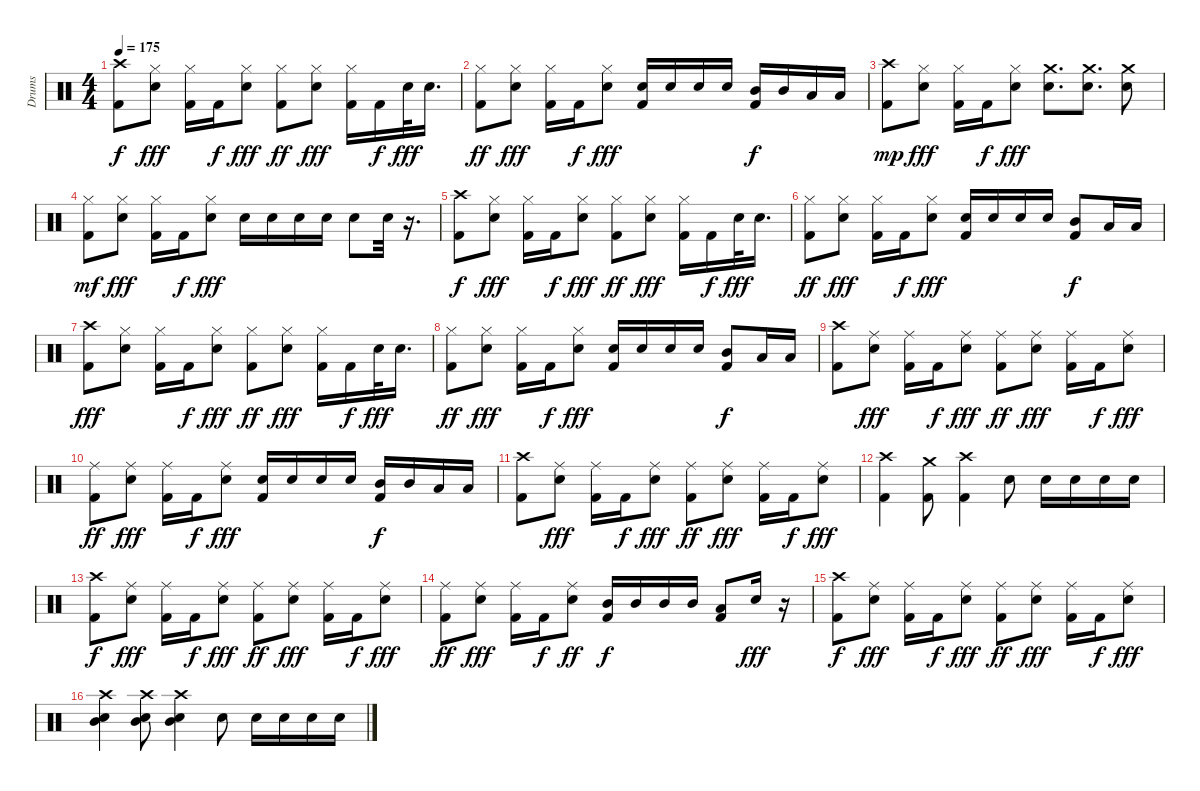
\track ("Drums" "Drums") {instrument percussion}
\staff {score}
\articulation defaults
\ts (4 4)
\tempo 175
\clef neutral
\ks c
("Crash high (hit)" "Kick (hit) 2").8{dy f} ("Hi-Hat (closed)" "Snare (hit) 2").8{dy fff} ("Hi-Hat (closed)" "Kick (hit) 2").16 "Kick (hit) 2".16{dy f} ("Hi-Hat (closed)" "Snare (hit) 2").8{dy fff} ("Hi-Hat (closed)" "Kick (hit) 2").8{dy ff} ("Hi-Hat (closed)" "Snare (hit) 2").8{dy fff} ("Hi-Hat (closed)" "Kick (hit) 2").16 "Kick (hit) 2".16{dy f} "Snare (hit) 2".32{dy fff} "Snare (hit) 2".16{d} |
("Hi-Hat (closed)" "Kick (hit) 2").8{dy ff} ("Hi-Hat (closed)" "Snare (hit) 2").8{dy fff} ("Hi-Hat (closed)" "Kick (hit) 2").16 "Kick (hit) 2".16{dy f} ("Hi-Hat (closed)" "Snare (hit) 2").8{dy fff} ("Snare (hit) 2" "Kick (hit) 2").16 "Snare (hit) 2".16 "Snare (hit) 2".16 "Snare (hit) 2".16 ("Mid Tom (hit)" "Kick (hit) 2").16{dy f} "Mid Tom (hit)".16 "Low Tom (hit)".16 "Low Tom (hit)".16 |
("Crash high (hit)" "Kick (hit) 2").8{dy mp} ("Hi-Hat (closed)" "Snare (hit) 2").8{dy fff} ("Hi-Hat (closed)" "Kick (hit) 2").16 "Kick (hit) 2".16{dy f} ("Hi-Hat (closed)" "Snare (hit) 2").8{dy fff} ("Crash medium (hit)" "Snare (hit) 2").8{d} ("Crash medium (hit)" "Snare (hit) 2").8{d} ("Crash medium (hit)" "Snare (hit) 2").8 |
("Hi-Hat (closed)" "Kick (hit) 2").8{dy mf} ("Hi-Hat (closed)" "Snare (hit) 2").8{dy fff} ("Hi-Hat (closed)" "Kick (hit) 2").16 "Kick (hit) 2".16{dy f} ("Hi-Hat (closed)" "Snare (hit) 2").8{dy fff} "Snare (hit) 2".16 "Snare (hit) 2".16 "Snare (hit) 2".16 "Snare (hit) 2".16 "Snare (hit) 2".8 "Snare (hit) 2".32 r.16{d} |
("Crash high (hit)" "Kick (hit) 2").8{dy f} ("Hi-Hat (closed)" "Snare (hit) 2").8{dy fff} ("Hi-Hat (closed)" "Kick (hit) 2").16 "Kick (hit) 2".16{dy f} ("Hi-Hat (closed)" "Snare (hit) 2").8{dy fff} ("Hi-Hat (closed)" "Kick (hit) 2").8{dy ff} ("Hi-Hat (closed)" "Snare (hit) 2").8{dy fff} ("Hi-Hat (closed)" "Kick (hit) 2").16 "Kick (hit) 2".16{dy f} "Snare (hit) 2".32{dy fff} "Snare (hit) 2".16{d} |
("Hi-Hat (closed)" "Kick (hit) 2").8{dy ff} ("Hi-Hat (closed)" "Snare (hit) 2").8{dy fff} ("Hi-Hat (closed)" "Kick (hit) 2").16 "Kick (hit) 2".16{dy f} ("Hi-Hat (closed)" "Snare (hit) 2").8{dy fff} ("Snare (hit) 2" "Kick (hit) 2").16 "Snare (hit) 2".16 "Snare (hit) 2".16 "Snare (hit) 2".16 ("Mid Tom (hit)" "Kick (hit) 2").8{dy f} "Low Tom (hit)".16 "Low Tom (hit)".16 |
("Crash high (hit)" "Kick (hit) 2").8{dy fff} ("Hi-Hat (closed)" "Snare (hit) 2").8 ("Hi-Hat (closed)" "Kick (hit) 2").16 "Kick (hit) 2".16{dy f} ("Hi-Hat (closed)" "Snare (hit) 2").8{dy fff} ("Hi-Hat (closed)" "Kick (hit) 2").8{dy ff} ("Hi-Hat (closed)" "Snare (hit) 2").8{dy fff} ("Hi-Hat (closed)" "Kick (hit) 2").16 "Kick (hit) 2".16{dy f} "Snare (hit) 2".32{dy fff} "Snare (hit) 2".16{d} |
("Hi-Hat (closed)" "Kick (hit) 2").8{dy ff} ("Hi-Hat (closed)" "Snare (hit) 2").8{dy fff} ("Hi-Hat (closed)" "Kick (hit) 2").16 "Kick (hit) 2".16{dy f} ("Hi-Hat (closed)" "Snare (hit) 2").8{dy fff} ("Snare (hit) 2" "Kick (hit) 2").16 "Snare (hit) 2".16 "Snare (hit) 2".16 "Snare (hit) 2".16 ("Mid Tom (hit)" "Kick (hit) 2").8{dy f} "Low Tom (hit)".16 "Low Tom (hit)".16 |
("Crash high (hit)" "Kick (hit) 2").8 ("Ride (middle)" "Snare (hit) 2").8{dy fff} ("Ride (middle)" "Kick (hit) 2").16 "Kick (hit) 2".16{dy f} ("Ride (middle)" "Snare (hit) 2").8{dy fff} ("Ride (middle)" "Kick (hit) 2").8{dy ff} ("Ride (middle)" "Snare (hit) 2").8{dy fff} ("Ride (middle)" "Kick (hit) 2").16 "Kick (hit) 2".16{dy f} ("Ride (middle)" "Snare (hit) 2").8{dy fff} |
("Ride (middle)" "Kick (hit) 2").8{dy ff} ("Ride (middle)" "Snare (hit) 2").8{dy fff} ("Ride (middle)" "Kick (hit) 2").16 "Kick (hit) 2".16{dy f} ("Ride (middle)" "Snare (hit) 2").8{dy fff} ("Snare (hit) 2" "Kick (hit) 2").16 "Snare (hit) 2".16 "Snare (hit) 2".16 "Snare (hit) 2".16 ("Mid Tom (hit)" "Kick (hit) 2").16{dy f} "Mid Tom (hit)".16 "Low Tom (hit)".16 "Low Tom (hit)".16 |
("Crash high (hit)" "Kick (hit) 2").8 ("Ride (middle)" "Snare (hit) 2").8{dy fff} ("Ride (middle)" "Kick (hit) 2").16 "Kick (hit) 2".16{dy f} ("Ride (middle)" "Snare (hit) 2").8{dy fff} ("Ride (middle)" "Kick (hit) 2").8{dy ff} ("Ride (middle)" "Snare (hit) 2").8{dy fff} ("Ride (middle)" "Kick (hit) 2").16 "Kick (hit) 2".16{dy f} ("Ride (middle)" "Snare (hit) 2").8{dy fff} |
("Crash high (hit)" "Kick (hit) 2").4 ("Crash medium (hit)" "Kick (hit) 2").8 ("Crash high (hit)" "Kick (hit) 2").4 "Snare (hit) 2".8 "Snare (hit) 2".16 "Snare (hit) 2".16 "Snare (hit) 2".16 "Snare (hit) 2".16 |
("Crash high (hit)" "Kick (hit) 2").8{dy f} ("Ride (middle)" "Snare (hit) 2").8{dy fff} ("Ride (middle)" "Kick (hit) 2").16 "Kick (hit) 2".16{dy f} ("Ride (middle)" "Snare (hit) 2").8{dy fff} ("Ride (middle)" "Kick (hit) 2").8{dy ff} ("Ride (middle)" "Snare (hit) 2").8{dy fff} ("Ride (middle)" "Kick (hit) 2").16 "Kick (hit) 2".16{dy f} ("Ride (middle)" "Snare (hit) 2").8{dy fff} |
("Ride (middle)" "Kick (hit) 2").8{dy ff} ("Ride (middle)" "Snare (hit) 2").8{dy fff} ("Ride (middle)" "Kick (hit) 2").16 "Kick (hit) 2".16{dy f} ("Ride (middle)" "Snare (hit) 2").8{dy ff} ("Mid Tom (hit)" "Kick (hit) 2").16{dy f} "Mid Tom (hit)".16 "Mid Tom (hit)".16 "Mid Tom (hit)".16 ("Low Tom (hit)" "Kick (hit) 2").8 "Snare (hit) 2".16{dy fff} r.16 |
("Crash high (hit)" "Kick (hit) 2").8{dy f} ("Ride (middle)" "Snare (hit) 2").8{dy fff} ("Ride (middle)" "Kick (hit) 2").16 "Kick (hit) 2".16{dy f} ("Ride (middle)" "Snare (hit) 2").8{dy fff} ("Ride (middle)" "Kick (hit) 2").8{dy ff} ("Ride (middle)" "Snare (hit) 2").8{dy fff} ("Ride (middle)" "Kick (hit) 2").16 "Kick (hit) 2".16{dy f} ("Ride (middle)" "Snare (hit) 2").8{dy fff} |
("Crash high (hit)" "Snare (hit) 2" "Mid Tom (hit)").4 ("Crash high (hit)" "Snare (hit) 2" "Mid Tom (hit)").8 ("Crash high (hit)" "Snare (hit) 2" "Mid Tom (hit)").4 "Snare (hit) 2".8 "Snare (hit) 2".16 "Snare (hit) 2".16 "Snare (hit) 2".16 "Snare (hit) 2".16
